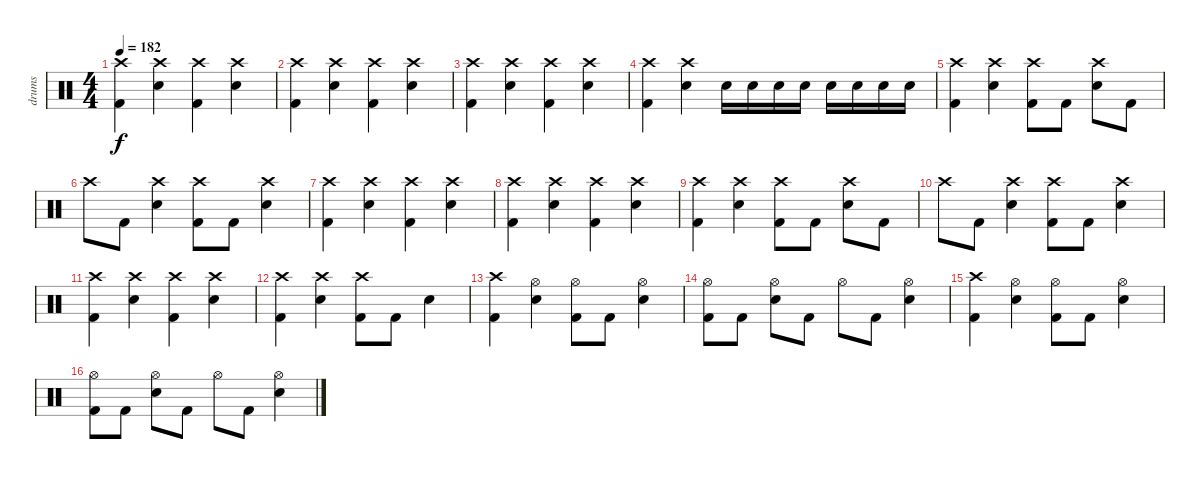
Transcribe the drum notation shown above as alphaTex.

\track ("drums" "drums") {instrument percussion}
\staff {score}
\articulation defaults
\ts (4 4)
\tempo 182
\clef neutral
\ks c
("Crash high (hit)" "Kick (hit) 2").4{dy f} ("Crash high (hit)" "Electric Snare (hit)").4 ("Crash high (hit)" "Kick (hit) 2").4 ("Crash high (hit)" "Electric Snare (hit)").4 |
("Crash high (hit)" "Kick (hit) 2").4 ("Crash high (hit)" "Electric Snare (hit)").4 ("Crash high (hit)" "Kick (hit) 2").4 ("Crash high (hit)" "Electric Snare (hit)").4 |
("Crash high (hit)" "Kick (hit) 2").4 ("Crash high (hit)" "Electric Snare (hit)").4 ("Crash high (hit)" "Kick (hit) 2").4 ("Crash high (hit)" "Electric Snare (hit)").4 |
("Crash high (hit)" "Kick (hit) 2").4 ("Crash high (hit)" "Electric Snare (hit)").4 "Electric Snare (hit)".16 "Electric Snare (hit)".16 "Electric Snare (hit)".16 "Electric Snare (hit)".16 "Electric Snare (hit)".16 "Electric Snare (hit)".16 "Electric Snare (hit)".16 "Electric Snare (hit)".16 |
("Crash high (hit)" "Kick (hit) 2").4 ("Crash high (hit)" "Electric Snare (hit)").4 ("Crash high (hit)" "Kick (hit) 2").8 "Kick (hit) 2".8 ("Crash high (hit)" "Electric Snare (hit)").8 "Kick (hit) 2".8 |
"Crash high (hit)".8 "Kick (hit) 2".8 ("Crash high (hit)" "Electric Snare (hit)").4 ("Crash high (hit)" "Kick (hit) 2").8 "Kick (hit) 2".8 ("Crash high (hit)" "Electric Snare (hit)").4 |
("Crash high (hit)" "Kick (hit) 2").4 ("Crash high (hit)" "Electric Snare (hit)").4 ("Crash high (hit)" "Kick (hit) 2").4 ("Crash high (hit)" "Electric Snare (hit)").4 |
("Crash high (hit)" "Kick (hit) 2").4 ("Crash high (hit)" "Electric Snare (hit)").4 ("Crash high (hit)" "Kick (hit) 2").4 ("Crash high (hit)" "Electric Snare (hit)").4 |
("Crash high (hit)" "Kick (hit) 2").4 ("Crash high (hit)" "Electric Snare (hit)").4 ("Crash high (hit)" "Kick (hit) 2").8 "Kick (hit) 2".8 ("Crash high (hit)" "Electric Snare (hit)").8 "Kick (hit) 2".8 |
"Crash high (hit)".8 "Kick (hit) 2".8 ("Crash high (hit)" "Electric Snare (hit)").4 ("Crash high (hit)" "Kick (hit) 2").8 "Kick (hit) 2".8 ("Crash high (hit)" "Electric Snare (hit)").4 |
("Crash high (hit)" "Kick (hit) 2").4 ("Crash high (hit)" "Electric Snare (hit)").4 ("Crash high (hit)" "Kick (hit) 2").4 ("Crash high (hit)" "Electric Snare (hit)").4 |
("Crash high (hit)" "Kick (hit) 2").4 ("Crash high (hit)" "Electric Snare (hit)").4 ("Crash high (hit)" "Kick (hit) 2").8 "Kick (hit) 2".8 "Electric Snare (hit)".4 |
("Crash high (hit)" "Kick (hit) 2").4 ("Hi-Hat (open)" "Electric Snare (hit)").4 ("Hi-Hat (open)" "Kick (hit) 2").8 "Kick (hit) 2".8 ("Hi-Hat (open)" "Electric Snare (hit)").4 |
("Hi-Hat (open)" "Kick (hit) 2").8 "Kick (hit) 2".8 ("Hi-Hat (open)" "Electric Snare (hit)").8 "Kick (hit) 2".8 "Hi-Hat (open)".8 "Kick (hit) 2".8 ("Hi-Hat (open)" "Electric Snare (hit)").4 |
("Crash high (hit)" "Kick (hit) 2").4 ("Hi-Hat (open)" "Electric Snare (hit)").4 ("Hi-Hat (open)" "Kick (hit) 2").8 "Kick (hit) 2".8 ("Hi-Hat (open)" "Electric Snare (hit)").4 |
("Hi-Hat (open)" "Kick (hit) 2").8 "Kick (hit) 2".8 ("Hi-Hat (open)" "Electric Snare (hit)").8 "Kick (hit) 2".8 "Hi-Hat (open)".8 "Kick (hit) 2".8 ("Hi-Hat (open)" "Electric Snare (hit)").4
